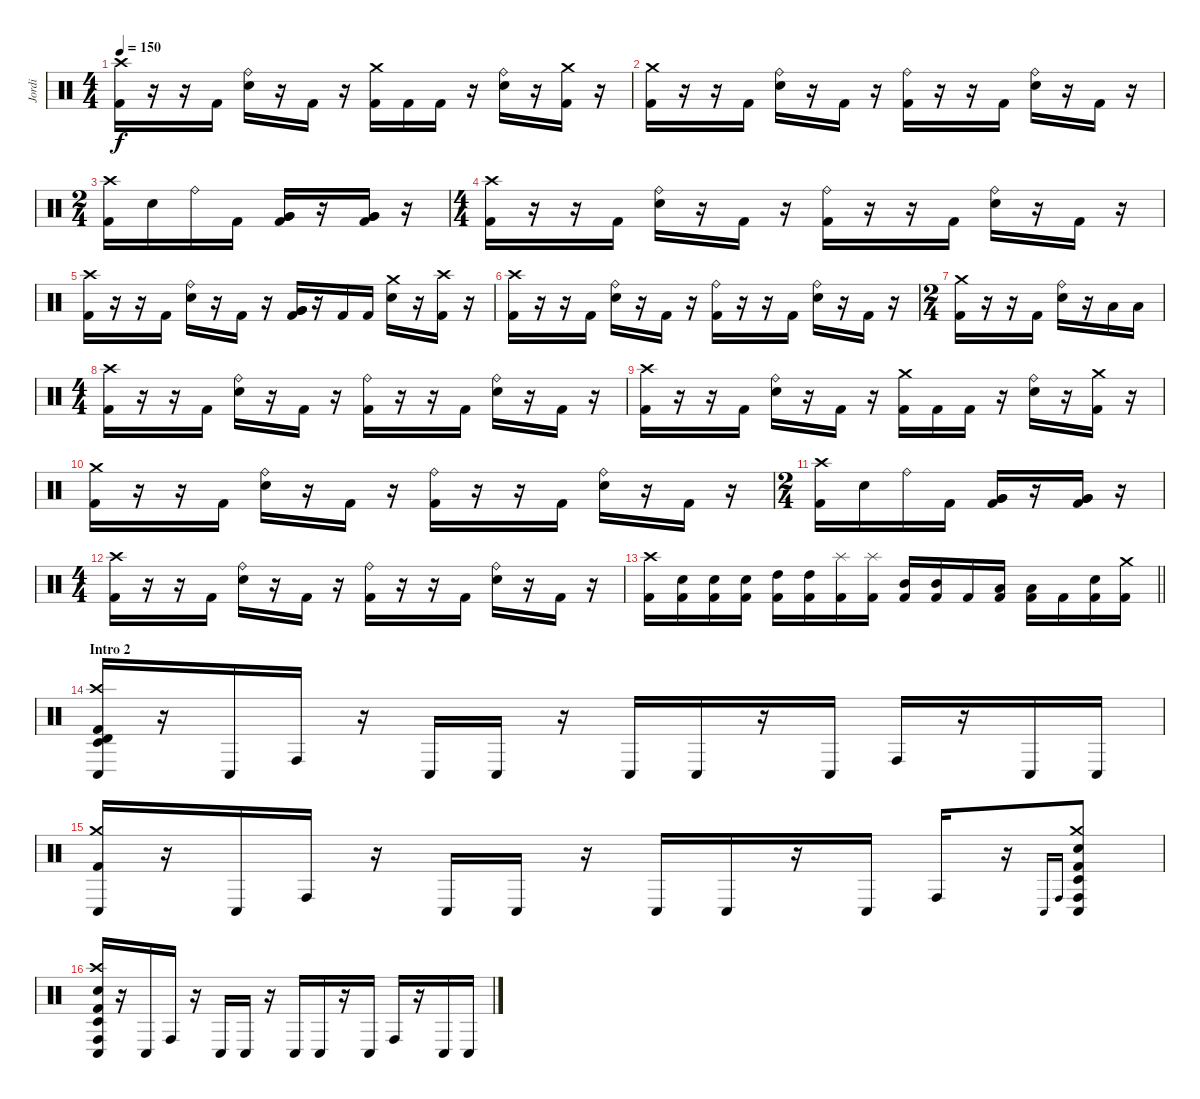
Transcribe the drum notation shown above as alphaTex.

\track ("Jordi" "Jordi") {instrument percussion}
\staff {score}
\articulation defaults
\ts (4 4)
\tempo 150
\clef neutral
\ks c
("Crash high (hit)" "Kick (hit) 2").16{dy f} r.16 r.16 "Kick (hit) 2".16 ("Ride (bell)" "Snare (hit) 2").16 r.16 "Kick (hit) 2".16 r.16 ("Crash medium (hit)" "Kick (hit) 2").16 "Kick (hit) 2".16 "Kick (hit) 2".16 r.16 ("Ride (bell)" "Snare (hit) 2").16 r.16 ("Crash medium (hit)" "Kick (hit) 2").16 r.16 |
("Crash medium (hit)" "Kick (hit) 2").16 r.16 r.16 "Kick (hit) 2".16 ("Ride (bell)" "Snare (hit) 2").16 r.16 "Kick (hit) 2".16 r.16 ("Ride (bell)" "Kick (hit) 2").16 r.16 r.16 "Kick (hit) 2".16 ("Ride (bell)" "Snare (hit) 2").16 r.16 "Kick (hit) 2".16 r.16 |
\ts (2 4)
("Crash high (hit)" "Kick (hit) 2").16 "Snare (hit) 2".16 "Ride (bell)".16 "Kick (hit) 2".16 ("Very Low Tom (hit)" "Very Low Tom (hit)" "Kick (hit) 2").16 r.16 ("Very Low Tom (hit)" "Very Low Tom (hit)" "Kick (hit) 2").16 r.16 |
\ts (4 4)
("Crash high (hit)" "Kick (hit) 2").16 r.16 r.16 "Kick (hit) 2".16 ("Ride (bell)" "Snare (hit) 2").16 r.16 "Kick (hit) 2".16 r.16 ("Ride (bell)" "Kick (hit) 2").16 r.16 r.16 "Kick (hit) 2".16 ("Ride (bell)" "Snare (hit) 2").16 r.16 "Kick (hit) 2".16 r.16 |
("Crash high (hit)" "Kick (hit) 2").16 r.16 r.16 "Kick (hit) 2".16 ("Ride (bell)" "Snare (hit) 2").16 r.16 "Kick (hit) 2".16 r.16 ("Very Low Tom (hit)" "Very Low Tom (hit)" "Kick (hit) 2").16 r.16 "Kick (hit) 2".16 "Kick (hit) 2".16 ("Crash medium (hit)" "Snare (hit) 2").16 r.16 ("Crash high (hit)" "Kick (hit) 2").16 r.16 |
("Crash high (hit)" "Kick (hit) 2").16 r.16 r.16 "Kick (hit) 2".16 ("Ride (bell)" "Snare (hit) 2").16 r.16 "Kick (hit) 2".16 r.16 ("Ride (bell)" "Kick (hit) 2").16 r.16 r.16 "Kick (hit) 2".16 ("Ride (bell)" "Snare (hit) 2").16 r.16 "Kick (hit) 2".16 r.16 |
\ts (2 4)
("Crash medium (hit)" "Kick (hit) 2").16 r.16 r.16 "Kick (hit) 2".16 ("Ride (bell)" "Snare (hit) 2").16 r.16 "Low Tom (hit)".16 "Low Tom (hit)".16 |
\ts (4 4)
("Crash high (hit)" "Kick (hit) 2").16 r.16 r.16 "Kick (hit) 2".16 ("Ride (bell)" "Snare (hit) 2").16 r.16 "Kick (hit) 2".16 r.16 ("Ride (bell)" "Kick (hit) 2").16 r.16 r.16 "Kick (hit) 2".16 ("Ride (bell)" "Snare (hit) 2").16 r.16 "Kick (hit) 2".16 r.16 |
("Crash high (hit)" "Kick (hit) 2").16 r.16 r.16 "Kick (hit) 2".16 ("Ride (bell)" "Snare (hit) 2").16 r.16 "Kick (hit) 2".16 r.16 ("Crash medium (hit)" "Kick (hit) 2").16 "Kick (hit) 2".16 "Kick (hit) 2".16 r.16 ("Ride (bell)" "Snare (hit) 2").16 r.16 ("Crash medium (hit)" "Kick (hit) 2").16 r.16 |
("Crash medium (hit)" "Kick (hit) 2").16 r.16 r.16 "Kick (hit) 2".16 ("Ride (bell)" "Snare (hit) 2").16 r.16 "Kick (hit) 2".16 r.16 ("Ride (bell)" "Kick (hit) 2").16 r.16 r.16 "Kick (hit) 2".16 ("Ride (bell)" "Snare (hit) 2").16 r.16 "Kick (hit) 2".16 r.16 |
\ts (2 4)
("Crash high (hit)" "Kick (hit) 2").16 "Snare (hit) 2".16 "Ride (bell)".16 "Kick (hit) 2".16 ("Very Low Tom (hit)" "Very Low Tom (hit)" "Kick (hit) 2").16 r.16 ("Very Low Tom (hit)" "Very Low Tom (hit)" "Kick (hit) 2").16 r.16 |
\ts (4 4)
("Crash high (hit)" "Kick (hit) 2").16 r.16 r.16 "Kick (hit) 2".16 ("Ride (bell)" "Snare (hit) 2").16 r.16 "Kick (hit) 2".16 r.16 ("Ride (bell)" "Kick (hit) 2").16 r.16 r.16 "Kick (hit) 2".16 ("Ride (bell)" "Snare (hit) 2").16 r.16 "Kick (hit) 2".16 r.16 |
\barLineRight lightlight
("Crash high (hit)" "Kick (hit) 2").16 ("Snare (hit) 2" "Kick (hit) 2").16 ("Snare (hit) 2" "Kick (hit) 2").16 ("Snare (hit) 2" "Kick (hit) 2").16 ("High Tom (hit)" "Kick (hit) 2").16 ("High Tom (hit)" "Kick (hit) 2").16 ("Splash (hit)" "Kick (hit) 2").16 ("Splash (hit)" "Kick (hit) 2").16 ("Mid Tom (hit)" "Kick (hit) 2").16 ("Mid Tom (hit)" "Kick (hit) 2").16 "Kick (hit) 2".16 ("Low Tom (hit)" "Kick (hit) 2").16 ("Low Tom (hit)" "Kick (hit) 2").16 "Kick (hit) 2".16 ("Snare (hit) 2" "Kick (hit) 2").16 ("Crash medium (hit)" "Kick (hit) 2").16 |
\section ("" "Intro 2")
("Crash high (hit)" "Conga low (hit)" "Timbale high (hit)" "Timbale low (hit)" "Kick (hit) 2").16 r.16 "Conga low (hit)".16 "Conga high (hit)".16 r.16 "Conga low (hit)".16 "Conga low (hit)".16 r.16 "Conga low (hit)".16 "Conga low (hit)".16 r.16 "Conga low (hit)".16 "Conga high (hit)".16 r.16 "Conga low (hit)".16 "Conga low (hit)".16 |
("Crash medium (hit)" "Conga low (hit)" "Kick (hit) 2").16 r.16 "Conga low (hit)".16 "Conga high (hit)".16 r.16 "Conga low (hit)".16 "Conga low (hit)".16 r.16 "Conga low (hit)".16 "Conga low (hit)".16 r.16 "Conga low (hit)".16 "Conga high (hit)".16 r.16 "Conga low (hit)".16{gr onbeat} "Conga high (hit)".16{gr onbeat} ("Crash medium (hit)" "Conga low (hit)" "Conga high (hit)" "Snare (hit) 2" "Timbale low (hit)" "Kick (hit) 2").8 |
("Crash high (hit)" "Conga low (hit)" "Conga high (hit)" "Timbale low (hit)" "Snare (hit) 2" "Kick (hit) 2").16 r.16 "Conga low (hit)".16 "Conga high (hit)".16 r.16 "Conga low (hit)".16 "Conga low (hit)".16 r.16 "Conga low (hit)".16 "Conga low (hit)".16 r.16 "Conga low (hit)".16 "Conga high (hit)".16 r.16 "Conga low (hit)".16 "Conga low (hit)".16
